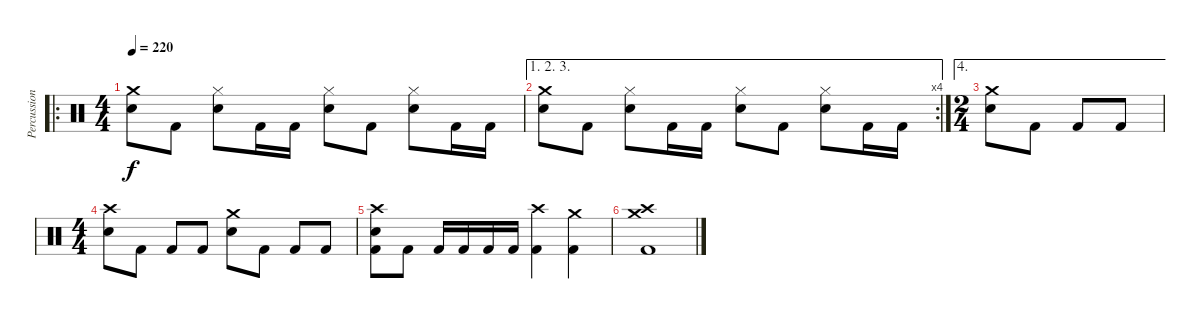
\track ("Percussion" "Percussion") {instrument percussion}
\staff {score}
\articulation defaults
\ro
\ts (4 4)
\section ("" "")
\tempo 220
\clef neutral
\ks c
("Crash medium (hit)" "Electric Snare (hit)").8{dy f} "Kick (hit) 2".8 ("Hi-Hat (closed)" "Electric Snare (hit)").8 "Kick (hit) 2".16 "Kick (hit) 2".16 ("Hi-Hat (closed)" "Electric Snare (hit)").8 "Kick (hit) 2".8 ("Hi-Hat (closed)" "Electric Snare (hit)").8 "Kick (hit) 2".16 "Kick (hit) 2".16 |
\ae (1 2 3)
\rc 4
("Crash medium (hit)" "Electric Snare (hit)").8 "Kick (hit) 2".8 ("Hi-Hat (closed)" "Electric Snare (hit)").8 "Kick (hit) 2".16 "Kick (hit) 2".16 ("Hi-Hat (closed)" "Electric Snare (hit)").8 "Kick (hit) 2".8 ("Hi-Hat (closed)" "Electric Snare (hit)").8 "Kick (hit) 2".16 "Kick (hit) 2".16 |
\ae 4
\ts (2 4)
("Crash medium (hit)" "Electric Snare (hit)").8 "Kick (hit) 2".8 "Kick (hit) 2".8 "Kick (hit) 2".8 |
\ts (4 4)
("Crash high (hit)" "Electric Snare (hit)").8 "Kick (hit) 2".8 "Kick (hit) 2".8 "Kick (hit) 2".8 ("Crash medium (hit)" "Electric Snare (hit)").8 "Kick (hit) 2".8 "Kick (hit) 2".8 "Kick (hit) 2".8 |
("Crash high (hit)" "Electric Snare (hit)" "Kick (hit) 2").8 "Kick (hit) 2".8 "Kick (hit) 2".16 "Kick (hit) 2".16 "Kick (hit) 2".16 "Kick (hit) 2".16 ("Crash high (hit)" "Kick (hit) 2").4 ("Crash medium (hit)" "Kick (hit) 2").4 |
("Crash high (hit)" "Crash medium (hit)" "Kick (hit) 2").1
